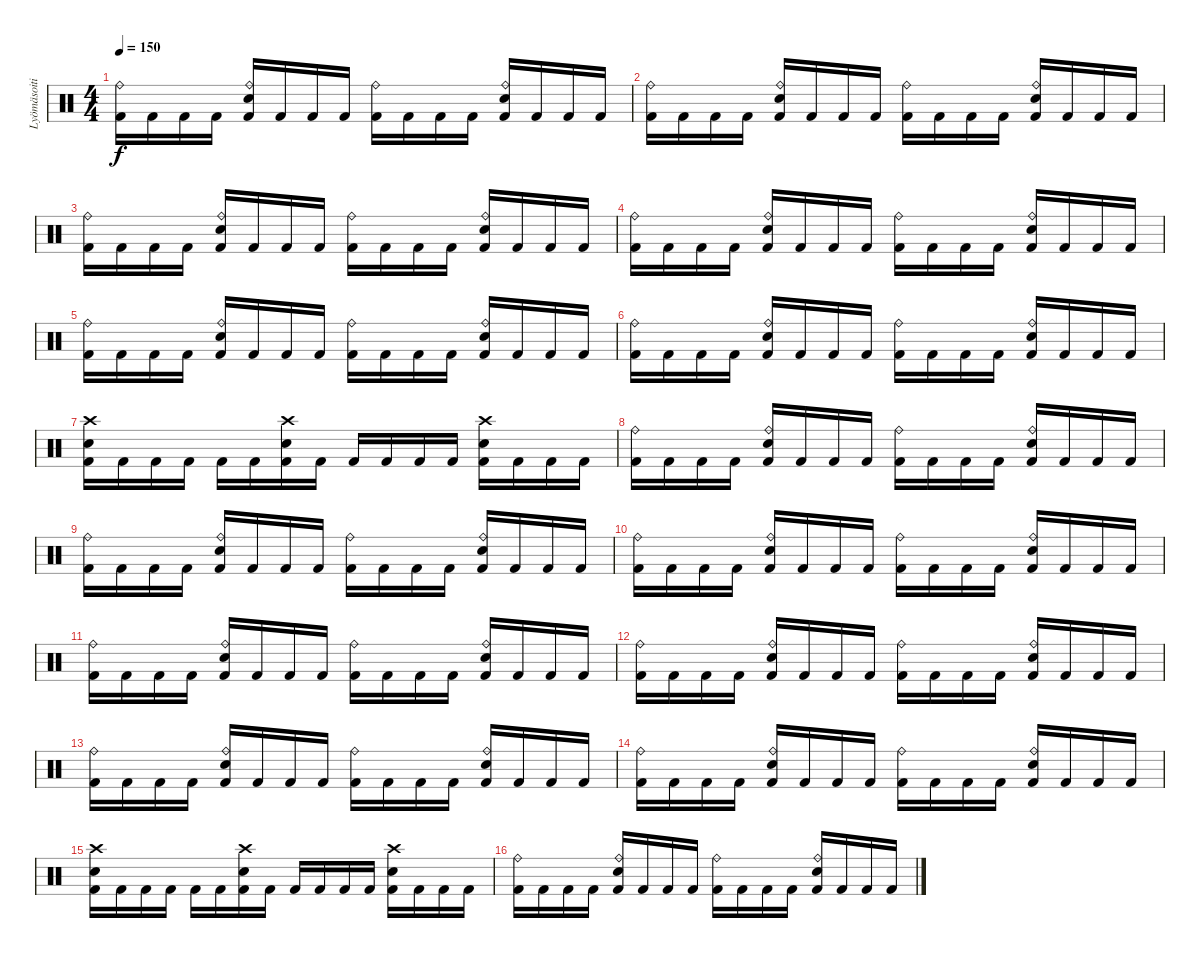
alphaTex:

\track ("Lyömäsoitin" "Lyömäsoiti") {instrument percussion}
\staff {score}
\articulation defaults
\ts (4 4)
\tempo 150
\clef neutral
\ks c
("Kick (hit) 2" "Ride (bell)").16{dy f} "Kick (hit) 2".16 "Kick (hit) 2".16 "Kick (hit) 2".16 ("Kick (hit) 2" "Ride (bell)" "Electric Snare (hit)").16 "Kick (hit) 2".16 "Kick (hit) 2".16 "Kick (hit) 2".16 ("Kick (hit) 2" "Ride (bell)").16 "Kick (hit) 2".16 "Kick (hit) 2".16 "Kick (hit) 2".16 ("Kick (hit) 2" "Ride (bell)" "Electric Snare (hit)").16 "Kick (hit) 2".16 "Kick (hit) 2".16 "Kick (hit) 2".16 |
("Kick (hit) 2" "Ride (bell)").16 "Kick (hit) 2".16 "Kick (hit) 2".16 "Kick (hit) 2".16 ("Kick (hit) 2" "Electric Snare (hit)" "Ride (bell)").16 "Kick (hit) 2".16 "Kick (hit) 2".16 "Kick (hit) 2".16 ("Kick (hit) 2" "Ride (bell)").16 "Kick (hit) 2".16 "Kick (hit) 2".16 "Kick (hit) 2".16 ("Kick (hit) 2" "Ride (bell)" "Electric Snare (hit)").16 "Kick (hit) 2".16 "Kick (hit) 2".16 "Kick (hit) 2".16 |
("Kick (hit) 2" "Ride (bell)").16 "Kick (hit) 2".16 "Kick (hit) 2".16 "Kick (hit) 2".16 ("Kick (hit) 2" "Electric Snare (hit)" "Ride (bell)").16 "Kick (hit) 2".16 "Kick (hit) 2".16 "Kick (hit) 2".16 ("Kick (hit) 2" "Ride (bell)").16 "Kick (hit) 2".16 "Kick (hit) 2".16 "Kick (hit) 2".16 ("Kick (hit) 2" "Ride (bell)" "Electric Snare (hit)").16 "Kick (hit) 2".16 "Kick (hit) 2".16 "Kick (hit) 2".16 |
("Kick (hit) 2" "Ride (bell)").16 "Kick (hit) 2".16 "Kick (hit) 2".16 "Kick (hit) 2".16 ("Kick (hit) 2" "Electric Snare (hit)" "Ride (bell)").16 "Kick (hit) 2".16 "Kick (hit) 2".16 "Kick (hit) 2".16 ("Kick (hit) 2" "Ride (bell)").16 "Kick (hit) 2".16 "Kick (hit) 2".16 "Kick (hit) 2".16 ("Kick (hit) 2" "Ride (bell)" "Electric Snare (hit)").16 "Kick (hit) 2".16 "Kick (hit) 2".16 "Kick (hit) 2".16 |
("Kick (hit) 2" "Ride (bell)").16 "Kick (hit) 2".16 "Kick (hit) 2".16 "Kick (hit) 2".16 ("Kick (hit) 2" "Ride (bell)" "Electric Snare (hit)").16 "Kick (hit) 2".16 "Kick (hit) 2".16 "Kick (hit) 2".16 ("Kick (hit) 2" "Ride (bell)").16 "Kick (hit) 2".16 "Kick (hit) 2".16 "Kick (hit) 2".16 ("Kick (hit) 2" "Ride (bell)" "Electric Snare (hit)").16 "Kick (hit) 2".16 "Kick (hit) 2".16 "Kick (hit) 2".16 |
("Kick (hit) 2" "Ride (bell)").16 "Kick (hit) 2".16 "Kick (hit) 2".16 "Kick (hit) 2".16 ("Kick (hit) 2" "Electric Snare (hit)" "Ride (bell)").16 "Kick (hit) 2".16 "Kick (hit) 2".16 "Kick (hit) 2".16 ("Kick (hit) 2" "Ride (bell)").16 "Kick (hit) 2".16 "Kick (hit) 2".16 "Kick (hit) 2".16 ("Kick (hit) 2" "Ride (bell)" "Electric Snare (hit)").16 "Kick (hit) 2".16 "Kick (hit) 2".16 "Kick (hit) 2".16 |
("Kick (hit) 2" "Crash high (hit)" "Electric Snare (hit)").16 "Kick (hit) 2".16 "Kick (hit) 2".16 "Kick (hit) 2".16 "Kick (hit) 2".16 "Kick (hit) 2".16 ("Kick (hit) 2" "Crash high (hit)" "Electric Snare (hit)").16 "Kick (hit) 2".16 "Kick (hit) 2".16 "Kick (hit) 2".16 "Kick (hit) 2".16 "Kick (hit) 2".16 ("Kick (hit) 2" "Crash high (hit)" "Electric Snare (hit)").16 "Kick (hit) 2".16 "Kick (hit) 2".16 "Kick (hit) 2".16 |
("Kick (hit) 2" "Ride (bell)").16{volume 10} "Kick (hit) 2".16 "Kick (hit) 2".16 "Kick (hit) 2".16 ("Kick (hit) 2" "Electric Snare (hit)" "Ride (bell)").16 "Kick (hit) 2".16 "Kick (hit) 2".16 "Kick (hit) 2".16 ("Kick (hit) 2" "Ride (bell)").16 "Kick (hit) 2".16 "Kick (hit) 2".16 "Kick (hit) 2".16 ("Kick (hit) 2" "Ride (bell)" "Electric Snare (hit)").16 "Kick (hit) 2".16 "Kick (hit) 2".16 "Kick (hit) 2".16 |
("Kick (hit) 2" "Ride (bell)").16{volume 9} "Kick (hit) 2".16 "Kick (hit) 2".16 "Kick (hit) 2".16 ("Kick (hit) 2" "Ride (bell)" "Electric Snare (hit)").16 "Kick (hit) 2".16 "Kick (hit) 2".16 "Kick (hit) 2".16 ("Kick (hit) 2" "Ride (bell)").16 "Kick (hit) 2".16 "Kick (hit) 2".16 "Kick (hit) 2".16 ("Kick (hit) 2" "Ride (bell)" "Electric Snare (hit)").16 "Kick (hit) 2".16 "Kick (hit) 2".16 "Kick (hit) 2".16 |
("Kick (hit) 2" "Ride (bell)").16{volume 8} "Kick (hit) 2".16 "Kick (hit) 2".16 "Kick (hit) 2".16 ("Kick (hit) 2" "Electric Snare (hit)" "Ride (bell)").16 "Kick (hit) 2".16 "Kick (hit) 2".16 "Kick (hit) 2".16 ("Kick (hit) 2" "Ride (bell)").16 "Kick (hit) 2".16 "Kick (hit) 2".16 "Kick (hit) 2".16 ("Kick (hit) 2" "Ride (bell)" "Electric Snare (hit)").16 "Kick (hit) 2".16 "Kick (hit) 2".16 "Kick (hit) 2".16 |
("Kick (hit) 2" "Ride (bell)").16{volume 7} "Kick (hit) 2".16 "Kick (hit) 2".16 "Kick (hit) 2".16 ("Kick (hit) 2" "Electric Snare (hit)" "Ride (bell)").16 "Kick (hit) 2".16 "Kick (hit) 2".16 "Kick (hit) 2".16 ("Kick (hit) 2" "Ride (bell)").16 "Kick (hit) 2".16 "Kick (hit) 2".16 "Kick (hit) 2".16 ("Kick (hit) 2" "Ride (bell)" "Electric Snare (hit)").16 "Kick (hit) 2".16 "Kick (hit) 2".16 "Kick (hit) 2".16 |
("Kick (hit) 2" "Ride (bell)").16{volume 6} "Kick (hit) 2".16 "Kick (hit) 2".16 "Kick (hit) 2".16 ("Kick (hit) 2" "Electric Snare (hit)" "Ride (bell)").16 "Kick (hit) 2".16 "Kick (hit) 2".16 "Kick (hit) 2".16 ("Kick (hit) 2" "Ride (bell)").16 "Kick (hit) 2".16 "Kick (hit) 2".16 "Kick (hit) 2".16 ("Kick (hit) 2" "Ride (bell)" "Electric Snare (hit)").16 "Kick (hit) 2".16 "Kick (hit) 2".16 "Kick (hit) 2".16 |
("Kick (hit) 2" "Ride (bell)").16{volume 5} "Kick (hit) 2".16 "Kick (hit) 2".16 "Kick (hit) 2".16 ("Kick (hit) 2" "Ride (bell)" "Electric Snare (hit)").16 "Kick (hit) 2".16 "Kick (hit) 2".16 "Kick (hit) 2".16 ("Kick (hit) 2" "Ride (bell)").16 "Kick (hit) 2".16 "Kick (hit) 2".16 "Kick (hit) 2".16 ("Kick (hit) 2" "Ride (bell)" "Electric Snare (hit)").16 "Kick (hit) 2".16 "Kick (hit) 2".16 "Kick (hit) 2".16 |
("Kick (hit) 2" "Ride (bell)").16{volume 4} "Kick (hit) 2".16 "Kick (hit) 2".16 "Kick (hit) 2".16 ("Kick (hit) 2" "Electric Snare (hit)" "Ride (bell)").16 "Kick (hit) 2".16 "Kick (hit) 2".16 "Kick (hit) 2".16 ("Kick (hit) 2" "Ride (bell)").16 "Kick (hit) 2".16 "Kick (hit) 2".16 "Kick (hit) 2".16 ("Kick (hit) 2" "Ride (bell)" "Electric Snare (hit)").16 "Kick (hit) 2".16 "Kick (hit) 2".16 "Kick (hit) 2".16 |
("Kick (hit) 2" "Crash high (hit)" "Electric Snare (hit)").16{volume 3} "Kick (hit) 2".16 "Kick (hit) 2".16 "Kick (hit) 2".16 "Kick (hit) 2".16 "Kick (hit) 2".16 ("Kick (hit) 2" "Crash high (hit)" "Electric Snare (hit)").16 "Kick (hit) 2".16 "Kick (hit) 2".16 "Kick (hit) 2".16 "Kick (hit) 2".16 "Kick (hit) 2".16 ("Kick (hit) 2" "Crash high (hit)" "Electric Snare (hit)").16 "Kick (hit) 2".16 "Kick (hit) 2".16 "Kick (hit) 2".16 |
("Kick (hit) 2" "Ride (bell)").16{volume 2} "Kick (hit) 2".16 "Kick (hit) 2".16 "Kick (hit) 2".16 ("Kick (hit) 2" "Electric Snare (hit)" "Ride (bell)").16 "Kick (hit) 2".16 "Kick (hit) 2".16 "Kick (hit) 2".16 ("Kick (hit) 2" "Ride (bell)").16 "Kick (hit) 2".16 "Kick (hit) 2".16 "Kick (hit) 2".16 ("Kick (hit) 2" "Ride (bell)" "Electric Snare (hit)").16 "Kick (hit) 2".16 "Kick (hit) 2".16 "Kick (hit) 2".16
